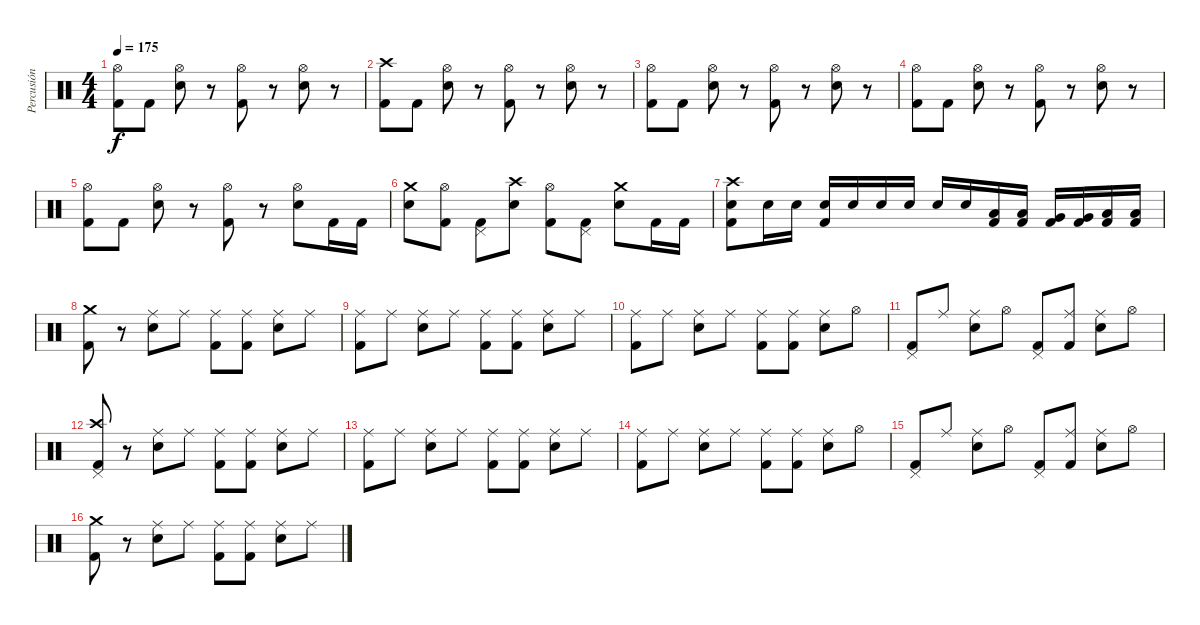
\track ("Percusión" "Percusión") {instrument percussion}
\staff {score}
\articulation defaults
\ts (4 4)
\tempo 175
\clef neutral
\ks c
("Hi-Hat (open)" "Kick (hit) 2").8{dy f} "Kick (hit) 2".8 ("Hi-Hat (open)" "Electric Snare (hit)").8 r.8 ("Hi-Hat (open)" "Kick (hit) 2").8 r.8 ("Hi-Hat (open)" "Electric Snare (hit)").8 r.8 |
("Crash high (hit)" "Kick (hit) 2").8 "Kick (hit) 2".8 ("Hi-Hat (open)" "Electric Snare (hit)").8 r.8 ("Hi-Hat (open)" "Kick (hit) 2").8 r.8 ("Hi-Hat (open)" "Electric Snare (hit)").8 r.8 |
("Hi-Hat (open)" "Kick (hit) 2").8 "Kick (hit) 2".8 ("Hi-Hat (open)" "Electric Snare (hit)").8 r.8 ("Hi-Hat (open)" "Kick (hit) 2").8 r.8 ("Hi-Hat (open)" "Electric Snare (hit)").8 r.8 |
("Hi-Hat (open)" "Kick (hit) 2").8 "Kick (hit) 2".8 ("Hi-Hat (open)" "Electric Snare (hit)").8 r.8 ("Hi-Hat (open)" "Kick (hit) 2").8 r.8 ("Hi-Hat (open)" "Electric Snare (hit)").8 r.8 |
("Hi-Hat (open)" "Kick (hit) 2").8 "Kick (hit) 2".8 ("Hi-Hat (open)" "Electric Snare (hit)").8 r.8 ("Hi-Hat (open)" "Kick (hit) 2").8 r.8 ("Hi-Hat (open)" "Electric Snare (hit)").8 "Kick (hit) 2".16 "Kick (hit) 2".16 |
("Crash medium (hit)" "Electric Snare (hit)").8 ("Hi-Hat (open)" "Kick (hit) 2").8 ("Pedal Hi-Hat (hit)" "Kick (hit) 2").8 ("Crash high (hit)" "Electric Snare (hit)").8 ("Hi-Hat (open)" "Kick (hit) 2").8 ("Pedal Hi-Hat (hit)" "Kick (hit) 2").8 ("Crash medium (hit)" "Electric Snare (hit)").8 "Kick (hit) 2".16 "Kick (hit) 2".16 |
("Crash high (hit)" "Electric Snare (hit)" "Kick (hit) 2").8 "Electric Snare (hit)".16 "Electric Snare (hit)".16 ("Electric Snare (hit)" "Kick (hit) 2").16 "Electric Snare (hit)".16 "Electric Snare (hit)".16 "Electric Snare (hit)".16 "Electric Snare (hit)".16 "Electric Snare (hit)".16 ("Low Tom (hit)" "Kick (hit) 2").16 ("Low Tom (hit)" "Kick (hit) 2").16 ("Very Low Tom (hit)" "Kick (hit) 2").16 ("Very Low Tom (hit)" "Kick (hit) 2").16 ("Low Floor Tom (hit)" "Kick (hit) 2").16 ("Low Floor Tom (hit)" "Kick (hit) 2").16 |
("Crash medium (hit)" "Kick (hit) 2").8 r.8 ("Ride (middle)" "Electric Snare (hit)").8 "Ride (middle)".8 ("Ride (middle)" "Kick (hit) 2").8 ("Ride (middle)" "Kick (hit) 2").8 ("Ride (middle)" "Electric Snare (hit)").8 "Ride (middle)".8 |
("Ride (middle)" "Kick (hit) 2").8 "Ride (middle)".8 ("Ride (middle)" "Electric Snare (hit)").8 "Ride (middle)".8 ("Ride (middle)" "Kick (hit) 2").8 ("Ride (middle)" "Kick (hit) 2").8 ("Ride (middle)" "Electric Snare (hit)").8 "Ride (middle)".8 |
("Ride (middle)" "Kick (hit) 2").8 "Ride (middle)".8 ("Ride (middle)" "Electric Snare (hit)").8 "Ride (middle)".8 ("Ride (middle)" "Kick (hit) 2").8 ("Ride (middle)" "Kick (hit) 2").8 ("Ride (middle)" "Electric Snare (hit)").8 "Hi-Hat (open)".8 |
("Pedal Hi-Hat (hit)" "Kick (hit) 2").8 "Ride (middle)".8 ("Ride (middle)" "Electric Snare (hit)").8 "Hi-Hat (open)".8 ("Pedal Hi-Hat (hit)" "Kick (hit) 2").8 ("Ride (middle)" "Kick (hit) 2").8 ("Ride (middle)" "Electric Snare (hit)").8 "Hi-Hat (open)".8 |
("Crash high (hit)" "Pedal Hi-Hat (hit)" "Kick (hit) 2").8 r.8 ("Ride (middle)" "Electric Snare (hit)").8 "Ride (middle)".8 ("Ride (middle)" "Kick (hit) 2").8 ("Ride (middle)" "Kick (hit) 2").8 ("Ride (middle)" "Electric Snare (hit)").8 "Ride (middle)".8 |
("Ride (middle)" "Kick (hit) 2").8 "Ride (middle)".8 ("Ride (middle)" "Electric Snare (hit)").8 "Ride (middle)".8 ("Ride (middle)" "Kick (hit) 2").8 ("Ride (middle)" "Kick (hit) 2").8 ("Ride (middle)" "Electric Snare (hit)").8 "Ride (middle)".8 |
("Ride (middle)" "Kick (hit) 2").8 "Ride (middle)".8 ("Ride (middle)" "Electric Snare (hit)").8 "Ride (middle)".8 ("Ride (middle)" "Kick (hit) 2").8 ("Ride (middle)" "Kick (hit) 2").8 ("Ride (middle)" "Electric Snare (hit)").8 "Hi-Hat (open)".8 |
("Pedal Hi-Hat (hit)" "Kick (hit) 2").8 "Ride (middle)".8 ("Ride (middle)" "Electric Snare (hit)").8 "Hi-Hat (open)".8 ("Pedal Hi-Hat (hit)" "Kick (hit) 2").8 ("Ride (middle)" "Kick (hit) 2").8 ("Ride (middle)" "Electric Snare (hit)").8 "Hi-Hat (open)".8 |
("Crash medium (hit)" "Kick (hit) 2").8 r.8 ("Ride (middle)" "Electric Snare (hit)").8 "Ride (middle)".8 ("Ride (middle)" "Kick (hit) 2").8 ("Ride (middle)" "Kick (hit) 2").8 ("Ride (middle)" "Electric Snare (hit)").8 "Ride (middle)".8
